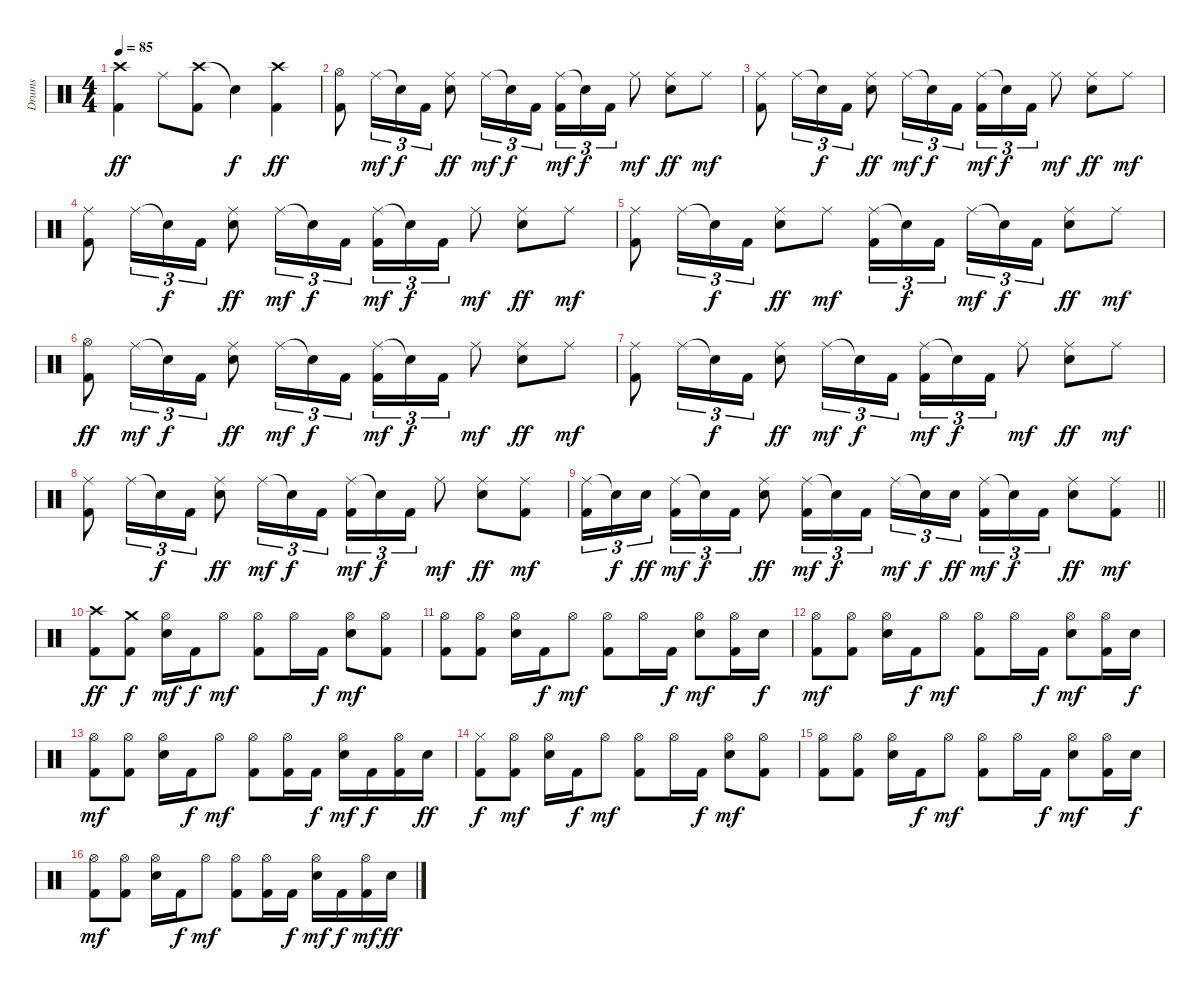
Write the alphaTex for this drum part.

\track ("Drums" "Drums") {instrument percussion}
\staff {score}
\articulation defaults
\ts (4 4)
\section ("" "")
\tempo 85
\clef neutral
\ks c
("Crash high (hit)" "Kick (hit) 2").4{dy ff} "Ride (middle)".8 ("Crash high (hit)" "Kick (hit) 2").8 "Snare (hit)"{t}.4{dy f} ("Crash high (hit)" "Kick (hit) 2").4{dy ff} |
("Hi-Hat (open)" "Kick (hit) 2").8 "Ride (middle)".16{tu (3 2) dy mf} "Snare (hit)"{t}.16{tu (3 2) dy f} "Kick (hit) 2".16{tu (3 2)} ("Ride (middle)" "Snare (hit) 2").8{dy ff} "Ride (middle)".16{tu (3 2) dy mf} "Snare (hit)"{t}.16{tu (3 2) dy f} "Kick (hit) 2".16{tu (3 2)} ("Ride (middle)" "Kick (hit) 2").16{tu (3 2) dy mf} "Snare (hit)"{t}.16{tu (3 2) dy f} "Kick (hit) 2".16{tu (3 2)} "Ride (middle)".8{dy mf} ("Ride (middle)" "Snare (hit) 2").8{dy ff} "Ride (middle)".8{dy mf} |
("Ride (middle)" "Kick (hit) 2").8 "Ride (middle)".16{tu (3 2)} "Snare (hit)"{t}.16{tu (3 2) dy f} "Kick (hit) 2".16{tu (3 2)} ("Ride (middle)" "Snare (hit) 2").8{dy ff} "Ride (middle)".16{tu (3 2) dy mf} "Snare (hit)"{t}.16{tu (3 2) dy f} "Kick (hit) 2".16{tu (3 2)} ("Ride (middle)" "Kick (hit) 2").16{tu (3 2) dy mf} "Snare (hit)"{t}.16{tu (3 2) dy f} "Kick (hit) 2".16{tu (3 2)} "Ride (middle)".8{dy mf} ("Ride (middle)" "Snare (hit) 2").8{dy ff} "Ride (middle)".8{dy mf} |
("Ride (middle)" "Kick (hit) 2").8 "Ride (middle)".16{tu (3 2)} "Snare (hit)"{t}.16{tu (3 2) dy f} "Kick (hit) 2".16{tu (3 2)} ("Ride (middle)" "Snare (hit) 2").8{dy ff} "Ride (middle)".16{tu (3 2) dy mf} "Snare (hit)"{t}.16{tu (3 2) dy f} "Kick (hit) 2".16{tu (3 2)} ("Ride (middle)" "Kick (hit) 2").16{tu (3 2) dy mf} "Snare (hit)"{t}.16{tu (3 2) dy f} "Kick (hit) 2".16{tu (3 2)} "Ride (middle)".8{dy mf} ("Ride (middle)" "Snare (hit) 2").8{dy ff} "Ride (middle)".8{dy mf} |
("Ride (middle)" "Kick (hit) 2").8 "Ride (middle)".16{tu (3 2)} "Snare (hit)"{t}.16{tu (3 2) dy f} "Kick (hit) 2".16{tu (3 2)} ("Ride (middle)" "Snare (hit) 2").8{dy ff} "Ride (middle)".8{dy mf} ("Ride (middle)" "Kick (hit) 2").16{tu (3 2)} "Snare (hit)"{t}.16{tu (3 2) dy f} "Kick (hit) 2".16{tu (3 2) beam splitsecondary} "Ride (middle)".16{tu (3 2) dy mf} "Snare (hit)"{t}.16{tu (3 2) dy f} "Kick (hit) 2".16{tu (3 2)} ("Ride (middle)" "Snare (hit) 2").8{dy ff} "Ride (middle)".8{dy mf} |
("Hi-Hat (open)" "Kick (hit) 2").8{dy ff} "Ride (middle)".16{tu (3 2) dy mf} "Snare (hit)"{t}.16{tu (3 2) dy f} "Kick (hit) 2".16{tu (3 2)} ("Ride (middle)" "Snare (hit) 2").8{dy ff} "Ride (middle)".16{tu (3 2) dy mf} "Snare (hit)"{t}.16{tu (3 2) dy f} "Kick (hit) 2".16{tu (3 2)} ("Ride (middle)" "Kick (hit) 2").16{tu (3 2) dy mf} "Snare (hit)"{t}.16{tu (3 2) dy f} "Kick (hit) 2".16{tu (3 2)} "Ride (middle)".8{dy mf} ("Ride (middle)" "Snare (hit) 2").8{dy ff} "Ride (middle)".8{dy mf} |
("Ride (middle)" "Kick (hit) 2").8 "Ride (middle)".16{tu (3 2)} "Snare (hit)"{t}.16{tu (3 2) dy f} "Kick (hit) 2".16{tu (3 2)} ("Ride (middle)" "Snare (hit) 2").8{dy ff} "Ride (middle)".16{tu (3 2) dy mf} "Snare (hit)"{t}.16{tu (3 2) dy f} "Kick (hit) 2".16{tu (3 2)} ("Ride (middle)" "Kick (hit) 2").16{tu (3 2) dy mf} "Snare (hit)"{t}.16{tu (3 2) dy f} "Kick (hit) 2".16{tu (3 2)} "Ride (middle)".8{dy mf} ("Ride (middle)" "Snare (hit) 2").8{dy ff} "Ride (middle)".8{dy mf} |
("Ride (middle)" "Kick (hit) 2").8 "Ride (middle)".16{tu (3 2)} "Snare (hit)"{t}.16{tu (3 2) dy f} "Kick (hit) 2".16{tu (3 2)} ("Ride (middle)" "Snare (hit) 2").8{dy ff} "Ride (middle)".16{tu (3 2) dy mf} "Snare (hit)"{t}.16{tu (3 2) dy f} "Kick (hit) 2".16{tu (3 2)} ("Ride (middle)" "Kick (hit) 2").16{tu (3 2) dy mf} "Snare (hit)"{t}.16{tu (3 2) dy f} "Kick (hit) 2".16{tu (3 2)} "Ride (middle)".8{dy mf} ("Ride (middle)" "Snare (hit) 2").8{dy ff} ("Ride (middle)" "Kick (hit) 2").8{dy mf} |
\barLineRight lightlight
("Ride (middle)" "Kick (hit) 2").16{tu (3 2)} "Snare (hit)"{t}.16{tu (3 2) dy f} "Snare (hit) 2".16{tu (3 2) dy ff beam splitsecondary} ("Ride (middle)" "Kick (hit) 2").16{tu (3 2) dy mf} "Snare (hit)"{t}.16{tu (3 2) dy f} "Kick (hit) 2".16{tu (3 2)} ("Ride (middle)" "Snare (hit) 2").8{dy ff} ("Ride (middle)" "Kick (hit) 2").16{tu (3 2) dy mf} "Snare (hit)"{t}.16{tu (3 2) dy f} "Kick (hit) 2".16{tu (3 2)} "Ride (middle)".16{tu (3 2) dy mf} "Snare (hit)"{t}.16{tu (3 2) dy f} "Snare (hit) 2".16{tu (3 2) dy ff beam splitsecondary} ("Ride (middle)" "Kick (hit) 2").16{tu (3 2) dy mf} "Snare (hit)"{t}.16{tu (3 2) dy f} "Kick (hit) 2".16{tu (3 2)} ("Ride (middle)" "Snare (hit) 2").8{dy ff} ("Ride (middle)" "Kick (hit) 2").8{dy mf} |
\section ("" "")
("Crash high (hit)" "Kick (hit) 2").8{dy ff} ("Crash medium (hit)" "Kick (hit) 2").8{dy f} ("Hi-Hat (open)" "Snare (hit) 2").16{dy mf} "Kick (hit) 2".16{dy f} "Hi-Hat (open)".8{dy mf} ("Hi-Hat (open)" "Kick (hit) 2").8 "Hi-Hat (open)".16 "Kick (hit) 2".16{dy f} ("Hi-Hat (open)" "Snare (hit) 2").8{dy mf} ("Hi-Hat (open)" "Kick (hit) 2").8 |
("Hi-Hat (open)" "Kick (hit) 2").8 ("Hi-Hat (open)" "Kick (hit) 2").8 ("Hi-Hat (open)" "Snare (hit) 2").16 "Kick (hit) 2".16{dy f} "Hi-Hat (open)".8{dy mf} ("Hi-Hat (open)" "Kick (hit) 2").8 "Hi-Hat (open)".16 "Kick (hit) 2".16{dy f} ("Hi-Hat (open)" "Snare (hit) 2").8{dy mf} ("Hi-Hat (open)" "Kick (hit) 2").16 "Snare (hit) 2".16{dy f} |
("Hi-Hat (open)" "Kick (hit) 2").8{dy mf} ("Hi-Hat (open)" "Kick (hit) 2").8 ("Hi-Hat (open)" "Snare (hit) 2").16 "Kick (hit) 2".16{dy f} "Hi-Hat (open)".8{dy mf} ("Hi-Hat (open)" "Kick (hit) 2").8 "Hi-Hat (open)".16 "Kick (hit) 2".16{dy f} ("Hi-Hat (open)" "Snare (hit) 2").8{dy mf} ("Hi-Hat (open)" "Kick (hit) 2").16 "Snare (hit) 2".16{dy f} |
("Hi-Hat (open)" "Kick (hit) 2").8{dy mf} ("Hi-Hat (open)" "Kick (hit) 2").8 ("Hi-Hat (open)" "Snare (hit) 2").16 "Kick (hit) 2".16{dy f} "Hi-Hat (open)".8{dy mf} ("Hi-Hat (open)" "Kick (hit) 2").8 ("Hi-Hat (open)" "Kick (hit) 2").16 "Kick (hit) 2".16{dy f} ("Hi-Hat (open)" "Snare (hit) 2").16{dy mf} "Kick (hit) 2".16{dy f} ("Hi-Hat (open)" "Kick (hit) 2").16 "Snare (hit) 2".16{dy ff} |
("Hi-Hat (closed)" "Kick (hit) 2").8{dy f} ("Hi-Hat (open)" "Kick (hit) 2").8{dy mf} ("Hi-Hat (open)" "Snare (hit) 2").16 "Kick (hit) 2".16{dy f} "Hi-Hat (open)".8{dy mf} ("Hi-Hat (open)" "Kick (hit) 2").8 "Hi-Hat (open)".16 "Kick (hit) 2".16{dy f} ("Hi-Hat (open)" "Snare (hit) 2").8{dy mf} ("Hi-Hat (open)" "Kick (hit) 2").8 |
("Hi-Hat (open)" "Kick (hit) 2").8 ("Hi-Hat (open)" "Kick (hit) 2").8 ("Hi-Hat (open)" "Snare (hit) 2").16 "Kick (hit) 2".16{dy f} "Hi-Hat (open)".8{dy mf} ("Hi-Hat (open)" "Kick (hit) 2").8 "Hi-Hat (open)".16 "Kick (hit) 2".16{dy f} ("Hi-Hat (open)" "Snare (hit) 2").8{dy mf} ("Hi-Hat (open)" "Kick (hit) 2").16 "Snare (hit) 2".16{dy f} |
("Hi-Hat (open)" "Kick (hit) 2").8{dy mf} ("Hi-Hat (open)" "Kick (hit) 2").8 ("Hi-Hat (open)" "Snare (hit) 2").16 "Kick (hit) 2".16{dy f} "Hi-Hat (open)".8{dy mf} ("Hi-Hat (open)" "Kick (hit) 2").8 ("Hi-Hat (open)" "Kick (hit) 2").16 "Kick (hit) 2".16{dy f} ("Hi-Hat (open)" "Snare (hit) 2").16{dy mf} "Kick (hit) 2".16{dy f} ("Hi-Hat (open)" "Kick (hit) 2").16{dy mf} "Snare (hit) 2".16{dy ff}
